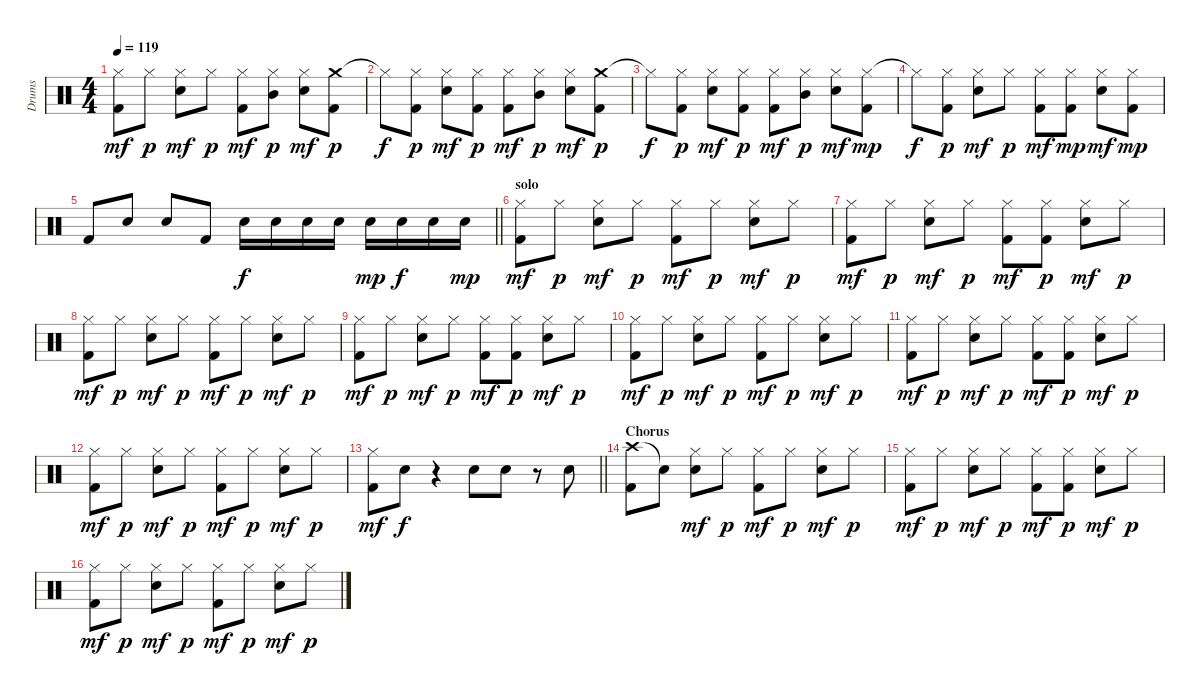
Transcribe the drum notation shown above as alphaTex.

\track ("Drums" "Drums") {instrument percussion}
\staff {score}
\articulation defaults
\ts (4 4)
\tempo 119
\clef neutral
\ks c
("Hi-Hat (closed)" "Kick (hit) 2").8{dy mf} "Hi-Hat (closed)".8{dy p} ("Hi-Hat (closed)" "Electric Snare (hit)").8{dy mf} "Hi-Hat (closed)".8{dy p} ("Hi-Hat (closed)" "Kick (hit) 2").8{dy mf} ("Hi-Hat (closed)" "Mid Tom (hit)").8{dy p} ("Hi-Hat (closed)" "Electric Snare (hit)").8{dy mf} ("Crash medium (hit)" "Kick (hit) 2").8{dy p} |
"Hi-Hat (closed)"{t}.8{dy f} ("Hi-Hat (closed)" "Kick (hit) 2").8{dy p} ("Hi-Hat (closed)" "Electric Snare (hit)").8{dy mf} ("Hi-Hat (closed)" "Kick (hit) 2").8{dy p} ("Hi-Hat (closed)" "Kick (hit) 2").8{dy mf} ("Hi-Hat (closed)" "Mid Tom (hit)").8{dy p} ("Hi-Hat (closed)" "Electric Snare (hit)").8{dy mf} ("Crash medium (hit)" "Kick (hit) 2").8{dy p} |
"Hi-Hat (closed)"{t}.8{dy f} ("Hi-Hat (closed)" "Kick (hit) 2").8{dy p} ("Hi-Hat (closed)" "Electric Snare (hit)").8{dy mf} ("Hi-Hat (closed)" "Kick (hit) 2").8{dy p} ("Hi-Hat (closed)" "Kick (hit) 2").8{dy mf} ("Hi-Hat (closed)" "Mid Tom (hit)").8{dy p} ("Hi-Hat (closed)" "Electric Snare (hit)").8{dy mf} ("Hi-Hat (closed)" "Kick (hit) 2").8{dy mp} |
"Hi-Hat (closed)"{t}.8{dy f} ("Hi-Hat (closed)" "Kick (hit) 2").8{dy p} ("Hi-Hat (closed)" "Electric Snare (hit)").8{dy mf} "Hi-Hat (closed)".8{dy p} ("Hi-Hat (closed)" "Kick (hit) 2").8{dy mf} ("Hi-Hat (closed)" "Kick (hit) 2").8{dy mp} ("Hi-Hat (closed)" "Electric Snare (hit)").8{dy mf} ("Hi-Hat (closed)" "Kick (hit) 2").8{dy mp} |
\barLineRight lightlight "Kick (hit) 2".8 "Electric Snare (hit)".8 "Electric Snare (hit)".8 "Kick (hit) 2".8 "Electric Snare (hit)".16{dy f} "Electric Snare (hit)".16 "Electric Snare (hit)".16 "Electric Snare (hit)".16 "Electric Snare (hit)".16{dy mp} "Electric Snare (hit)".16{dy f} "Electric Snare (hit)".16 "Electric Snare (hit)".16{dy mp}
|
\section ("" "solo")
("Hi-Hat (closed)" "Kick (hit) 2").8{dy mf} "Hi-Hat (closed)".8{dy p} ("Hi-Hat (closed)" "Electric Snare (hit)").8{dy mf} "Hi-Hat (closed)".8{dy p} ("Hi-Hat (closed)" "Kick (hit) 2").8{dy mf} "Hi-Hat (closed)".8{dy p} ("Hi-Hat (closed)" "Electric Snare (hit)").8{dy mf} "Hi-Hat (closed)".8{dy p} |
("Hi-Hat (closed)" "Kick (hit) 2").8{dy mf} "Hi-Hat (closed)".8{dy p} ("Hi-Hat (closed)" "Electric Snare (hit)").8{dy mf} "Hi-Hat (closed)".8{dy p} ("Hi-Hat (closed)" "Kick (hit) 2").8{dy mf} ("Hi-Hat (closed)" "Kick (hit) 2").8{dy p} ("Hi-Hat (closed)" "Electric Snare (hit)").8{dy mf} "Hi-Hat (closed)".8{dy p} |
("Hi-Hat (closed)" "Kick (hit) 2").8{dy mf} "Hi-Hat (closed)".8{dy p} ("Hi-Hat (closed)" "Electric Snare (hit)").8{dy mf} "Hi-Hat (closed)".8{dy p} ("Hi-Hat (closed)" "Kick (hit) 2").8{dy mf} "Hi-Hat (closed)".8{dy p} ("Hi-Hat (closed)" "Electric Snare (hit)").8{dy mf} "Hi-Hat (closed)".8{dy p} |
("Hi-Hat (closed)" "Kick (hit) 2").8{dy mf} "Hi-Hat (closed)".8{dy p} ("Hi-Hat (closed)" "Electric Snare (hit)").8{dy mf} "Hi-Hat (closed)".8{dy p} ("Hi-Hat (closed)" "Kick (hit) 2").8{dy mf} ("Hi-Hat (closed)" "Kick (hit) 2").8{dy p} ("Hi-Hat (closed)" "Electric Snare (hit)").8{dy mf} "Hi-Hat (closed)".8{dy p} |
("Hi-Hat (closed)" "Kick (hit) 2").8{dy mf} "Hi-Hat (closed)".8{dy p} ("Hi-Hat (closed)" "Electric Snare (hit)").8{dy mf} "Hi-Hat (closed)".8{dy p} ("Hi-Hat (closed)" "Kick (hit) 2").8{dy mf} "Hi-Hat (closed)".8{dy p} ("Hi-Hat (closed)" "Electric Snare (hit)").8{dy mf} "Hi-Hat (closed)".8{dy p} |
("Hi-Hat (closed)" "Kick (hit) 2").8{dy mf} "Hi-Hat (closed)".8{dy p} ("Hi-Hat (closed)" "Electric Snare (hit)").8{dy mf} "Hi-Hat (closed)".8{dy p} ("Hi-Hat (closed)" "Kick (hit) 2").8{dy mf} ("Hi-Hat (closed)" "Kick (hit) 2").8{dy p} ("Hi-Hat (closed)" "Electric Snare (hit)").8{dy mf} "Hi-Hat (closed)".8{dy p} |
("Hi-Hat (closed)" "Kick (hit) 2").8{dy mf} "Hi-Hat (closed)".8{dy p} ("Hi-Hat (closed)" "Electric Snare (hit)").8{dy mf} "Hi-Hat (closed)".8{dy p} ("Hi-Hat (closed)" "Kick (hit) 2").8{dy mf} "Hi-Hat (closed)".8{dy p} ("Hi-Hat (closed)" "Electric Snare (hit)").8{dy mf} "Hi-Hat (closed)".8{dy p} |
\barLineRight lightlight
("Hi-Hat (closed)" "Kick (hit) 2").8{dy mf} "Electric Snare (hit)".8{dy f} r.4 "Electric Snare (hit)".8 "Electric Snare (hit)".8 r.8 "Electric Snare (hit)".8 |
\section ("" "Chorus")
("Crash high (hit)" "Kick (hit) 2").8 "Snare (hit)"{t}.8 ("Hi-Hat (closed)" "Electric Snare (hit)").8{dy mf} "Hi-Hat (closed)".8{dy p} ("Hi-Hat (closed)" "Kick (hit) 2").8{dy mf} "Hi-Hat (closed)".8{dy p} ("Hi-Hat (closed)" "Electric Snare (hit)").8{dy mf} "Hi-Hat (closed)".8{dy p} |
("Hi-Hat (closed)" "Kick (hit) 2").8{dy mf} "Hi-Hat (closed)".8{dy p} ("Hi-Hat (closed)" "Electric Snare (hit)").8{dy mf} "Hi-Hat (closed)".8{dy p} ("Hi-Hat (closed)" "Kick (hit) 2").8{dy mf} ("Hi-Hat (closed)" "Kick (hit) 2").8{dy p} ("Hi-Hat (closed)" "Electric Snare (hit)").8{dy mf} "Hi-Hat (closed)".8{dy p} |
("Hi-Hat (closed)" "Kick (hit) 2").8{dy mf} "Hi-Hat (closed)".8{dy p} ("Hi-Hat (closed)" "Electric Snare (hit)").8{dy mf} "Hi-Hat (closed)".8{dy p} ("Hi-Hat (closed)" "Kick (hit) 2").8{dy mf} "Hi-Hat (closed)".8{dy p} ("Hi-Hat (closed)" "Electric Snare (hit)").8{dy mf} "Hi-Hat (closed)".8{dy p}
